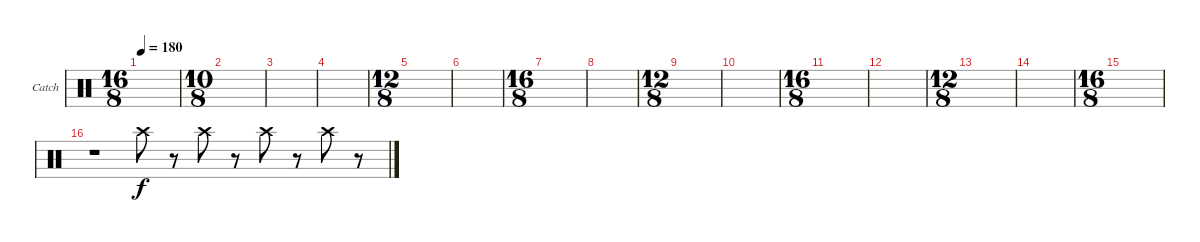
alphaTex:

\defaultSystemsLayout 4
\bracketExtendMode groupsimilarinstruments
\firstSystemTrackNameOrientation horizontal
\otherSystemsTrackNameOrientation horizontal
\track ("Crash Catch" "Catch") {instrument percussion}
\staff {score}
\articulation defaults
\ts (16 8)
\tempo 180
\clef neutral
\scale
0.333333
\ks c
|
\ts (10 8)
\scale
0.474178 |
\scale
0.262911 |
\scale
0.262911 |
\ts (12 8)
\scale
0.391473 |
\scale
0.217054 |
\ts (16 8)
\scale
0.391473 |
\scale
0.262911 |
\ts (12 8)
\scale
0.474178 |
\scale
0.262911 |
\ts (16 8)
\scale
0.391473 |
\scale
0.217054 |
\ts (12 8)
\scale
0.391473 |
\scale
0.262911 |
\ts (16 8)
\scale
0.474178 |
\scale
0.262911 r.1 "Crash high (hit)".8 r.8 "Crash high (hit)".8 r.8 "Crash high (hit)".8 r.8 "Crash high (hit)".8 r.8
